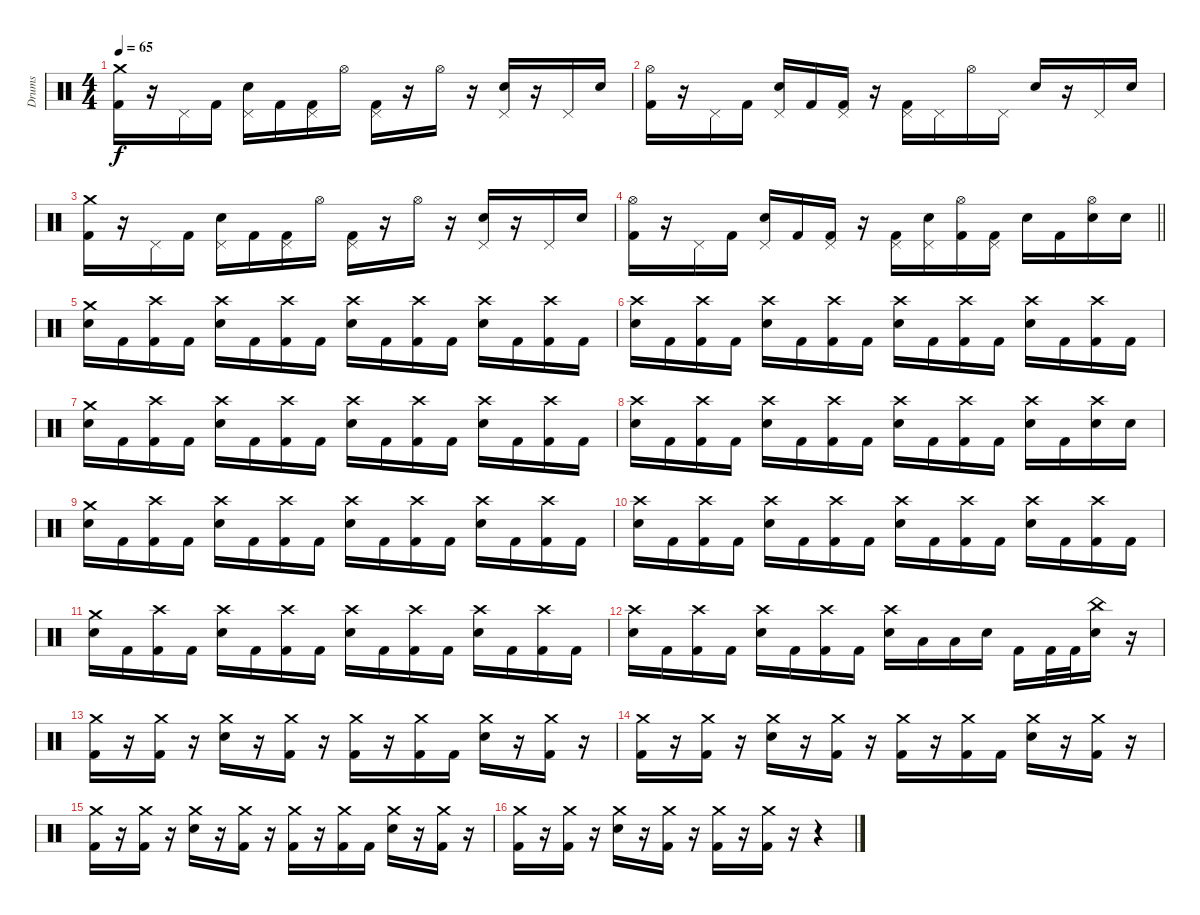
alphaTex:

\track ("Drums" "Drums") {instrument percussion}
\staff {score}
\articulation defaults
\ts (4 4)
\tempo 65
\clef neutral
\ks c
("Crash medium (hit)" "Kick (hit) 2").16{dy f} r.16 "Pedal Hi-Hat (hit)".16 "Kick (hit) 2".16 ("Pedal Hi-Hat (hit)" "Electric Snare (hit)").16 "Kick (hit) 2".16 ("Pedal Hi-Hat (hit)" "Kick (hit) 2").16 "Hi-Hat (open)".16 ("Pedal Hi-Hat (hit)" "Kick (hit) 2").16 r.16 "Hi-Hat (open)".16 r.16 ("Pedal Hi-Hat (hit)" "Electric Snare (hit)").16 r.16 "Pedal Hi-Hat (hit)".16 "Electric Snare (hit)".16 |
("Hi-Hat (open)" "Kick (hit) 2").16 r.16 "Pedal Hi-Hat (hit)".16 "Kick (hit) 2".16 ("Pedal Hi-Hat (hit)" "Electric Snare (hit)").16 "Kick (hit) 2".16 ("Pedal Hi-Hat (hit)" "Kick (hit) 2").16 r.16 ("Pedal Hi-Hat (hit)" "Kick (hit) 2").16 "Pedal Hi-Hat (hit)".16 "Hi-Hat (open)".16 "Pedal Hi-Hat (hit)".16 "Electric Snare (hit)".16 r.16 "Pedal Hi-Hat (hit)".16 "Electric Snare (hit)".16 |
("Crash medium (hit)" "Kick (hit) 2").16 r.16 "Pedal Hi-Hat (hit)".16 "Kick (hit) 2".16 ("Pedal Hi-Hat (hit)" "Electric Snare (hit)").16 "Kick (hit) 2".16 ("Pedal Hi-Hat (hit)" "Kick (hit) 2").16 "Hi-Hat (open)".16 ("Pedal Hi-Hat (hit)" "Kick (hit) 2").16 r.16 "Hi-Hat (open)".16 r.16 ("Pedal Hi-Hat (hit)" "Electric Snare (hit)").16 r.16 "Pedal Hi-Hat (hit)".16 "Electric Snare (hit)".16 |
\barLineRight lightlight
("Hi-Hat (open)" "Kick (hit) 2").16 r.16 "Pedal Hi-Hat (hit)".16 "Kick (hit) 2".16 ("Pedal Hi-Hat (hit)" "Electric Snare (hit)").16 "Kick (hit) 2".16 ("Pedal Hi-Hat (hit)" "Kick (hit) 2").16 r.16 ("Pedal Hi-Hat (hit)" "Kick (hit) 2").16 ("Pedal Hi-Hat (hit)" "Electric Snare (hit)").16 ("Hi-Hat (open)" "Kick (hit) 2").16 ("Pedal Hi-Hat (hit)" "Kick (hit) 2").16 "Electric Snare (hit)".16 "Kick (hit) 2".16 ("Hi-Hat (open)" "Electric Snare (hit)").16 "Electric Snare (hit)".16 |
("Crash medium (hit)" "Electric Snare (hit)").16 "Kick (hit) 2".16 ("Crash high (hit)" "Kick (hit) 2").16 "Kick (hit) 2".16 ("Crash high (hit)" "Electric Snare (hit)").16 "Kick (hit) 2".16 ("Crash high (hit)" "Kick (hit) 2").16 "Kick (hit) 2".16 ("Crash high (hit)" "Electric Snare (hit)").16 "Kick (hit) 2".16 ("Crash high (hit)" "Kick (hit) 2").16 "Kick (hit) 2".16 ("Crash high (hit)" "Electric Snare (hit)").16 "Kick (hit) 2".16 ("Crash high (hit)" "Kick (hit) 2").16 "Kick (hit) 2".16 |
("Crash high (hit)" "Electric Snare (hit)").16 "Kick (hit) 2".16 ("Crash high (hit)" "Kick (hit) 2").16 "Kick (hit) 2".16 ("Crash high (hit)" "Electric Snare (hit)").16 "Kick (hit) 2".16 ("Crash high (hit)" "Kick (hit) 2").16 "Kick (hit) 2".16 ("Crash high (hit)" "Electric Snare (hit)").16 "Kick (hit) 2".16 ("Crash high (hit)" "Kick (hit) 2").16 "Kick (hit) 2".16 ("Crash high (hit)" "Electric Snare (hit)").16 "Kick (hit) 2".16 ("Crash high (hit)" "Kick (hit) 2").16 "Kick (hit) 2".16 |
("Crash medium (hit)" "Electric Snare (hit)").16 "Kick (hit) 2".16 ("Crash high (hit)" "Kick (hit) 2").16 "Kick (hit) 2".16 ("Crash high (hit)" "Electric Snare (hit)").16 "Kick (hit) 2".16 ("Crash high (hit)" "Kick (hit) 2").16 "Kick (hit) 2".16 ("Crash high (hit)" "Electric Snare (hit)").16 "Kick (hit) 2".16 ("Crash high (hit)" "Kick (hit) 2").16 "Kick (hit) 2".16 ("Crash high (hit)" "Electric Snare (hit)").16 "Kick (hit) 2".16 ("Crash high (hit)" "Kick (hit) 2").16 "Kick (hit) 2".16 |
("Crash high (hit)" "Electric Snare (hit)").16 "Kick (hit) 2".16 ("Crash high (hit)" "Kick (hit) 2").16 "Kick (hit) 2".16 ("Crash high (hit)" "Electric Snare (hit)").16 "Kick (hit) 2".16 ("Crash high (hit)" "Kick (hit) 2").16 "Kick (hit) 2".16 ("Crash high (hit)" "Electric Snare (hit)").16 "Kick (hit) 2".16 ("Crash high (hit)" "Kick (hit) 2").16 "Kick (hit) 2".16 ("Crash high (hit)" "Electric Snare (hit)").16 "Kick (hit) 2".16 ("Crash high (hit)" "Electric Snare (hit)").16 "Electric Snare (hit)".16 |
("Crash medium (hit)" "Electric Snare (hit)").16 "Kick (hit) 2".16 ("Crash high (hit)" "Kick (hit) 2").16 "Kick (hit) 2".16 ("Crash high (hit)" "Electric Snare (hit)").16 "Kick (hit) 2".16 ("Crash high (hit)" "Kick (hit) 2").16 "Kick (hit) 2".16 ("Crash high (hit)" "Electric Snare (hit)").16 "Kick (hit) 2".16 ("Crash high (hit)" "Kick (hit) 2").16 "Kick (hit) 2".16 ("Crash high (hit)" "Electric Snare (hit)").16 "Kick (hit) 2".16 ("Crash high (hit)" "Kick (hit) 2").16 "Kick (hit) 2".16 |
("Crash high (hit)" "Electric Snare (hit)").16 "Kick (hit) 2".16 ("Crash high (hit)" "Kick (hit) 2").16 "Kick (hit) 2".16 ("Crash high (hit)" "Electric Snare (hit)").16 "Kick (hit) 2".16 ("Crash high (hit)" "Kick (hit) 2").16 "Kick (hit) 2".16 ("Crash high (hit)" "Electric Snare (hit)").16 "Kick (hit) 2".16 ("Crash high (hit)" "Kick (hit) 2").16 "Kick (hit) 2".16 ("Crash high (hit)" "Electric Snare (hit)").16 "Kick (hit) 2".16 ("Crash high (hit)" "Kick (hit) 2").16 "Kick (hit) 2".16 |
("Crash medium (hit)" "Electric Snare (hit)").16 "Kick (hit) 2".16 ("Crash high (hit)" "Kick (hit) 2").16 "Kick (hit) 2".16 ("Crash high (hit)" "Electric Snare (hit)").16 "Kick (hit) 2".16 ("Crash high (hit)" "Kick (hit) 2").16 "Kick (hit) 2".16 ("Crash high (hit)" "Electric Snare (hit)").16 "Kick (hit) 2".16 ("Crash high (hit)" "Kick (hit) 2").16 "Kick (hit) 2".16 ("Crash high (hit)" "Electric Snare (hit)").16 "Kick (hit) 2".16 ("Crash high (hit)" "Kick (hit) 2").16 "Kick (hit) 2".16 |
("Crash high (hit)" "Electric Snare (hit)").16 "Kick (hit) 2".16 ("Crash high (hit)" "Kick (hit) 2").16 "Kick (hit) 2".16 ("Crash high (hit)" "Electric Snare (hit)").16 "Kick (hit) 2".16 ("Crash high (hit)" "Kick (hit) 2").16 "Kick (hit) 2".16 ("Crash high (hit)" "Electric Snare (hit)").16 "Low Tom (hit)".16 "Low Tom (hit)".16 "Electric Snare (hit)".16 "Kick (hit) 2".16 "Kick (hit) 2".32 "Kick (hit) 2".32 ("China (hit)" "Electric Snare (hit)").16 r.16 |
("Crash medium (hit)" "Kick (hit) 2").16 r.16 ("Crash medium (hit)" "Kick (hit) 2").16 r.16 ("Crash medium (hit)" "Electric Snare (hit)").16 r.16 ("Crash medium (hit)" "Kick (hit) 2").16 r.16 ("Crash medium (hit)" "Kick (hit) 2").16 r.16 ("Crash medium (hit)" "Kick (hit) 2").16 "Kick (hit) 2".16 ("Crash medium (hit)" "Electric Snare (hit)").16 r.16 ("Crash medium (hit)" "Kick (hit) 2").16 r.16 |
("Crash medium (hit)" "Kick (hit) 2").16 r.16 ("Crash medium (hit)" "Kick (hit) 2").16 r.16 ("Crash medium (hit)" "Electric Snare (hit)").16 r.16 ("Crash medium (hit)" "Kick (hit) 2").16 r.16 ("Crash medium (hit)" "Kick (hit) 2").16 r.16 ("Crash medium (hit)" "Kick (hit) 2").16 "Kick (hit) 2".16 ("Crash medium (hit)" "Electric Snare (hit)").16 r.16 ("Crash medium (hit)" "Kick (hit) 2").16 r.16 |
("Crash medium (hit)" "Kick (hit) 2").16 r.16 ("Crash medium (hit)" "Kick (hit) 2").16 r.16 ("Crash medium (hit)" "Electric Snare (hit)").16 r.16 ("Crash medium (hit)" "Kick (hit) 2").16 r.16 ("Crash medium (hit)" "Kick (hit) 2").16 r.16 ("Crash medium (hit)" "Kick (hit) 2").16 "Kick (hit) 2".16 ("Crash medium (hit)" "Electric Snare (hit)").16 r.16 ("Crash medium (hit)" "Kick (hit) 2").16 r.16 |
("Crash medium (hit)" "Kick (hit) 2").16 r.16 ("Crash medium (hit)" "Kick (hit) 2").16 r.16 ("Crash medium (hit)" "Electric Snare (hit)").16 r.16 ("Crash medium (hit)" "Kick (hit) 2").16 r.16 ("Crash medium (hit)" "Kick (hit) 2").16 r.16 ("Crash medium (hit)" "Kick (hit) 2").16 r.16 r.4
